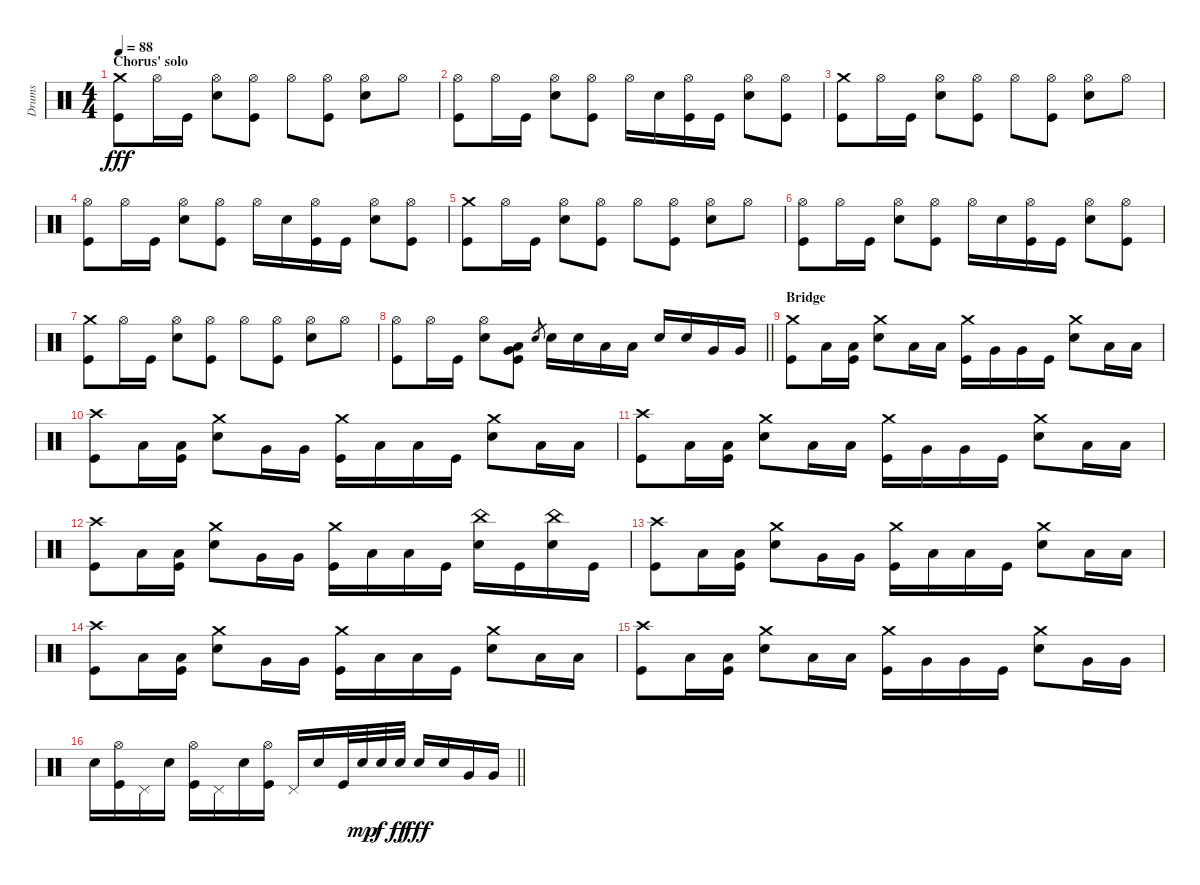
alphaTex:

\track ("Drums" "Drums") {instrument percussion}
\staff {score}
\articulation defaults
\ts (4 4)
\section ("" "Chorus' solo")
\tempo 88
\clef neutral
\ks c
("Crash medium (hit)" "Kick (hit)").8{dy fff} "Hi-Hat (open)".16 "Kick (hit)".16 ("Hi-Hat (open)" "Snare (hit) 2").8 ("Hi-Hat (open)" "Kick (hit)").8 "Hi-Hat (open)".8 ("Hi-Hat (open)" "Kick (hit)").8 ("Hi-Hat (open)" "Snare (hit) 2").8 "Hi-Hat (open)".8 |
("Hi-Hat (open)" "Kick (hit)").8 "Hi-Hat (open)".16 "Kick (hit)".16 ("Hi-Hat (open)" "Snare (hit) 2").8 ("Hi-Hat (open)" "Kick (hit)").8 "Hi-Hat (open)".16 "Snare (hit) 2".16 ("Hi-Hat (open)" "Kick (hit)").16 "Kick (hit)".16 ("Hi-Hat (open)" "Snare (hit) 2").8 ("Hi-Hat (open)" "Kick (hit)").8 |
("Crash medium (hit)" "Kick (hit)").8 "Hi-Hat (open)".16 "Kick (hit)".16 ("Hi-Hat (open)" "Snare (hit) 2").8 ("Hi-Hat (open)" "Kick (hit)").8 "Hi-Hat (open)".8 ("Hi-Hat (open)" "Kick (hit)").8 ("Hi-Hat (open)" "Snare (hit) 2").8 "Hi-Hat (open)".8 |
("Hi-Hat (open)" "Kick (hit)").8 "Hi-Hat (open)".16 "Kick (hit)".16 ("Hi-Hat (open)" "Snare (hit) 2").8 ("Hi-Hat (open)" "Kick (hit)").8 "Hi-Hat (open)".16 "Snare (hit) 2".16 ("Hi-Hat (open)" "Kick (hit)").16 "Kick (hit)".16 ("Hi-Hat (open)" "Snare (hit) 2").8 ("Hi-Hat (open)" "Kick (hit)").8 |
("Crash medium (hit)" "Kick (hit)").8 "Hi-Hat (open)".16 "Kick (hit)".16 ("Hi-Hat (open)" "Snare (hit) 2").8 ("Hi-Hat (open)" "Kick (hit)").8 "Hi-Hat (open)".8 ("Hi-Hat (open)" "Kick (hit)").8 ("Hi-Hat (open)" "Snare (hit) 2").8 "Hi-Hat (open)".8 |
("Hi-Hat (open)" "Kick (hit)").8 "Hi-Hat (open)".16 "Kick (hit)".16 ("Hi-Hat (open)" "Snare (hit) 2").8 ("Hi-Hat (open)" "Kick (hit)").8 "Hi-Hat (open)".16 "Snare (hit) 2".16 ("Hi-Hat (open)" "Kick (hit)").16 "Kick (hit)".16 ("Hi-Hat (open)" "Snare (hit) 2").8 ("Hi-Hat (open)" "Kick (hit)").8 |
("Crash medium (hit)" "Kick (hit)").8 "Hi-Hat (open)".16 "Kick (hit)".16 ("Hi-Hat (open)" "Snare (hit) 2").8 ("Hi-Hat (open)" "Kick (hit)").8 "Hi-Hat (open)".8 ("Hi-Hat (open)" "Kick (hit)").8 ("Hi-Hat (open)" "Snare (hit) 2").8 "Hi-Hat (open)".8 |
\barLineRight lightlight
("Hi-Hat (open)" "Kick (hit)").8 "Hi-Hat (open)".16 "Kick (hit)".16 ("Hi-Hat (open)" "Snare (hit) 2").8 ("Low Tom (hit)" "Very Low Tom (hit)" "Kick (hit)").8 "Snare (hit) 2".8{gr} "Snare (hit) 2".16 "Snare (hit) 2".16 "Low Tom (hit)".16 "Low Tom (hit)".16 "Snare (hit) 2".16 "Snare (hit) 2".16 "Very Low Tom (hit)".16 "Very Low Tom (hit)".16 |
\section ("" "Bridge")
("Crash medium (hit)" "Kick (hit)").8 "Low Floor Tom (hit)".16 ("Low Floor Tom (hit)" "Kick (hit)").16 ("Crash medium (hit)" "Snare (hit) 2").8 "Low Tom (hit)".16 "Low Tom (hit)".16 ("Crash medium (hit)" "Kick (hit)").16 "Very Low Tom (hit)".16 "Very Low Tom (hit)".16 "Kick (hit)".16 ("Crash medium (hit)" "Snare (hit) 2").8 "Low Floor Tom (hit)".16 "Low Floor Tom (hit)".16 |
("Crash high (hit)" "Kick (hit)").8 "Low Floor Tom (hit)".16 ("Low Floor Tom (hit)" "Kick (hit)").16 ("Crash medium (hit)" "Snare (hit) 2").8 "Very Low Tom (hit)".16 "Very Low Tom (hit)".16 ("Crash medium (hit)" "Kick (hit)").16 "Low Tom (hit)".16 "Low Tom (hit)".16 "Kick (hit)".16 ("Crash medium (hit)" "Snare (hit) 2").8 "Low Floor Tom (hit)".16 "Low Floor Tom (hit)".16 |
("Crash high (hit)" "Kick (hit)").8 "Low Floor Tom (hit)".16 ("Low Floor Tom (hit)" "Kick (hit)").16 ("Crash medium (hit)" "Snare (hit) 2").8 "Low Tom (hit)".16 "Low Tom (hit)".16 ("Crash medium (hit)" "Kick (hit)").16 "Very Low Tom (hit)".16 "Very Low Tom (hit)".16 "Kick (hit)".16 ("Crash medium (hit)" "Snare (hit) 2").8 "Low Floor Tom (hit)".16 "Low Floor Tom (hit)".16 |
("Crash high (hit)" "Kick (hit)").8 "Low Floor Tom (hit)".16 ("Low Floor Tom (hit)" "Kick (hit)").16 ("Crash medium (hit)" "Snare (hit) 2").8 "Very Low Tom (hit)".16 "Very Low Tom (hit)".16 ("Crash medium (hit)" "Kick (hit)").16 "Low Tom (hit)".16 "Low Tom (hit)".16 "Kick (hit)".16 ("China (hit)" "Snare (hit) 2").16 "Kick (hit)".16 ("China (hit)" "Snare (hit) 2").16 "Kick (hit)".16 |
("Crash high (hit)" "Kick (hit)").8 "Low Tom (hit)".16 ("Low Tom (hit)" "Kick (hit)").16 ("Crash medium (hit)" "Snare (hit) 2").8 "Very Low Tom (hit)".16 "Very Low Tom (hit)".16 ("Crash medium (hit)" "Kick (hit)").16 "Low Floor Tom (hit)".16 "Low Floor Tom (hit)".16 "Kick (hit)".16 ("Crash medium (hit)" "Snare (hit) 2").8 "Low Floor Tom (hit)".16 "Low Floor Tom (hit)".16 |
("Crash high (hit)" "Kick (hit)").8 "Low Floor Tom (hit)".16 ("Low Floor Tom (hit)" "Kick (hit)").16 ("Crash medium (hit)" "Snare (hit) 2").8 "Very Low Tom (hit)".16 "Very Low Tom (hit)".16 ("Crash medium (hit)" "Kick (hit)").16 "Low Tom (hit)".16 "Low Tom (hit)".16 "Kick (hit)".16 ("Crash medium (hit)" "Snare (hit) 2").8 "Low Floor Tom (hit)".16 "Low Floor Tom (hit)".16 |
("Crash high (hit)" "Kick (hit)").8 "Low Floor Tom (hit)".16 ("Low Floor Tom (hit)" "Kick (hit)").16 ("Crash medium (hit)" "Snare (hit) 2").8 "Low Tom (hit)".16 "Low Tom (hit)".16 ("Crash medium (hit)" "Kick (hit)").16 "Very Low Tom (hit)".16 "Very Low Tom (hit)".16 "Kick (hit)".16 ("Crash medium (hit)" "Snare (hit) 2").8 "Very Low Tom (hit)".16 "Very Low Tom (hit)".16 |
\barLineRight lightlight "Snare (hit) 2".16
("Hi-Hat (open)" "Kick (hit)").16 "Pedal Hi-Hat (hit)".16 "Snare (hit) 2".16 ("Hi-Hat (open)" "Kick (hit)").16 "Pedal Hi-Hat (hit)".16 "Snare (hit) 2".16 ("Hi-Hat (open)" "Kick (hit)").16 "Pedal Hi-Hat (hit)".16 "Snare (hit) 2".16 "Kick (hit)".32 "Snare (hit) 2".32{dy mp} "Snare (hit) 2".32{dy f} "Snare (hit) 2".32{dy ff} "Snare (hit) 2".16{dy fff} "Snare (hit) 2".16 "Very Low Tom (hit)".16 "Very Low Tom (hit)".16
